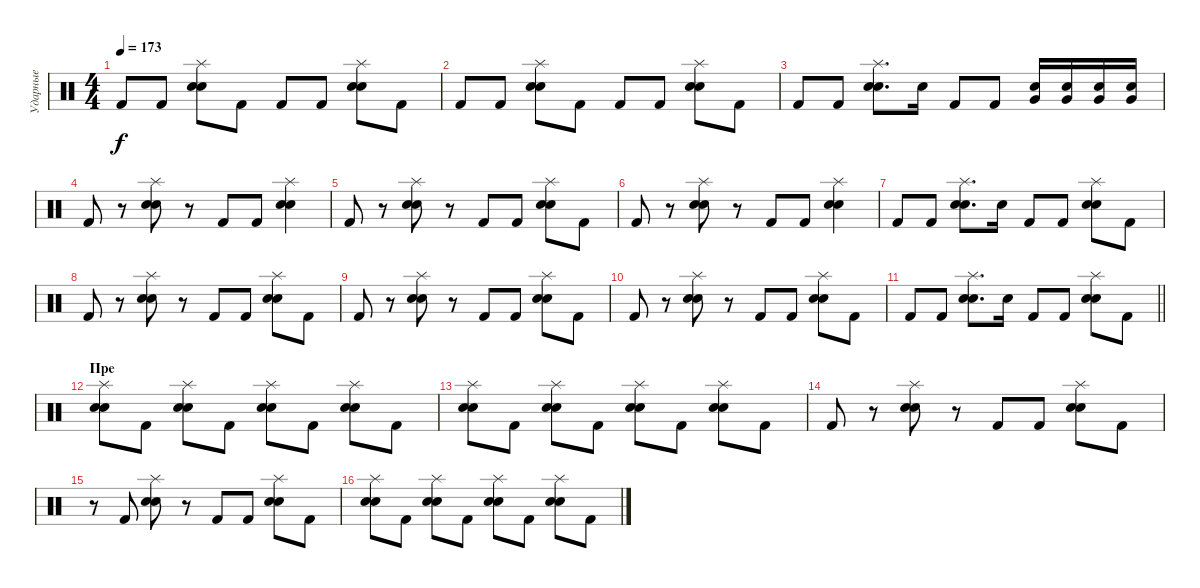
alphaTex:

\track ("Ударные" "Ударные") {instrument percussion}
\staff {score}
\articulation defaults
\ts (4 4)
\tempo 173
\clef neutral
\ks c "Kick (hit) 2".8{dy f} "Kick (hit) 2".8
("Splash (hit)" "Electric Snare (hit)" "Snare (hit) 2").8 "Kick (hit) 2".8 "Kick (hit) 2".8 "Kick (hit) 2".8 ("Splash (hit)" "Electric Snare (hit)" "Snare (hit) 2").8 "Kick (hit) 2".8 |
"Kick (hit) 2".8 "Kick (hit) 2".8 ("Splash (hit)" "Electric Snare (hit)" "Snare (hit) 2").8 "Kick (hit) 2".8 "Kick (hit) 2".8 "Kick (hit) 2".8 ("Splash (hit)" "Electric Snare (hit)" "Snare (hit) 2").8 "Kick (hit) 2".8 |
"Kick (hit) 2".8 "Kick (hit) 2".8 ("Splash (hit)" "Electric Snare (hit)" "Snare (hit) 2").8{d} "Electric Snare (hit)".16 "Kick (hit) 2".8 "Kick (hit) 2".8 ("Very Low Tom (hit)" "Snare (hit) 2").16 ("Very Low Tom (hit)" "Snare (hit) 2").16 ("Very Low Tom (hit)" "Snare (hit) 2").16 ("Very Low Tom (hit)" "Snare (hit) 2").16 |
"Kick (hit) 2".8 r.8 ("Splash (hit)" "Electric Snare (hit)" "Snare (hit) 2").8 r.8 "Kick (hit) 2".8 "Kick (hit) 2".8 ("Splash (hit)" "Electric Snare (hit)" "Snare (hit) 2").4 |
"Kick (hit) 2".8 r.8 ("Splash (hit)" "Electric Snare (hit)" "Snare (hit) 2").8 r.8 "Kick (hit) 2".8 "Kick (hit) 2".8 ("Splash (hit)" "Electric Snare (hit)" "Snare (hit) 2").8 "Kick (hit) 2".8 |
"Kick (hit) 2".8 r.8 ("Splash (hit)" "Electric Snare (hit)" "Snare (hit) 2").8 r.8 "Kick (hit) 2".8 "Kick (hit) 2".8 ("Splash (hit)" "Electric Snare (hit)" "Snare (hit) 2").4 |
"Kick (hit) 2".8 "Kick (hit) 2".8 ("Splash (hit)" "Electric Snare (hit)" "Snare (hit) 2").8{d} "Electric Snare (hit)".16 "Kick (hit) 2".8 "Kick (hit) 2".8 ("Splash (hit)" "Electric Snare (hit)" "Snare (hit) 2").8 "Kick (hit) 2".8 |
"Kick (hit) 2".8 r.8 ("Splash (hit)" "Electric Snare (hit)" "Snare (hit) 2").8 r.8 "Kick (hit) 2".8 "Kick (hit) 2".8 ("Splash (hit)" "Electric Snare (hit)" "Snare (hit) 2").8 "Kick (hit) 2".8 |
"Kick (hit) 2".8 r.8 ("Splash (hit)" "Electric Snare (hit)" "Snare (hit) 2").8 r.8 "Kick (hit) 2".8 "Kick (hit) 2".8 ("Splash (hit)" "Electric Snare (hit)" "Snare (hit) 2").8 "Kick (hit) 2".8 |
"Kick (hit) 2".8 r.8 ("Splash (hit)" "Electric Snare (hit)" "Snare (hit) 2").8 r.8 "Kick (hit) 2".8 "Kick (hit) 2".8 ("Splash (hit)" "Electric Snare (hit)" "Snare (hit) 2").8 "Kick (hit) 2".8 |
\barLineRight lightlight "Kick (hit) 2".8 "Kick (hit) 2".8
("Splash (hit)" "Electric Snare (hit)" "Snare (hit) 2").8{d} "Electric Snare (hit)".16 "Kick (hit) 2".8 "Kick (hit) 2".8 ("Splash (hit)" "Electric Snare (hit)" "Snare (hit) 2").8 "Kick (hit) 2".8 |
\section ("" "Пре")
("Splash (hit)" "Electric Snare (hit)" "Snare (hit) 2").8 "Kick (hit) 2".8 ("Splash (hit)" "Electric Snare (hit)" "Snare (hit) 2").8 "Kick (hit) 2".8 ("Splash (hit)" "Electric Snare (hit)" "Snare (hit) 2").8 "Kick (hit) 2".8 ("Splash (hit)" "Electric Snare (hit)" "Snare (hit) 2").8 "Kick (hit) 2".8 |
("Splash (hit)" "Electric Snare (hit)" "Snare (hit) 2").8 "Kick (hit) 2".8 ("Splash (hit)" "Electric Snare (hit)" "Snare (hit) 2").8 "Kick (hit) 2".8 ("Splash (hit)" "Electric Snare (hit)" "Snare (hit) 2").8 "Kick (hit) 2".8 ("Splash (hit)" "Electric Snare (hit)" "Snare (hit) 2").8 "Kick (hit) 2".8 |
"Kick (hit) 2".8 r.8 ("Splash (hit)" "Electric Snare (hit)" "Snare (hit) 2").8 r.8 "Kick (hit) 2".8 "Kick (hit) 2".8 ("Splash (hit)" "Electric Snare (hit)" "Snare (hit) 2").8 "Kick (hit) 2".8 |
r.8 "Kick (hit) 2".8 ("Splash (hit)" "Electric Snare (hit)" "Snare (hit) 2").8 r.8 "Kick (hit) 2".8 "Kick (hit) 2".8 ("Splash (hit)" "Electric Snare (hit)" "Snare (hit) 2").8 "Kick (hit) 2".8 |
("Splash (hit)" "Electric Snare (hit)" "Snare (hit) 2").8 "Kick (hit) 2".8 ("Splash (hit)" "Electric Snare (hit)" "Snare (hit) 2").8 "Kick (hit) 2".8 ("Splash (hit)" "Electric Snare (hit)" "Snare (hit) 2").8 "Kick (hit) 2".8 ("Splash (hit)" "Electric Snare (hit)" "Snare (hit) 2").8 "Kick (hit) 2".8
